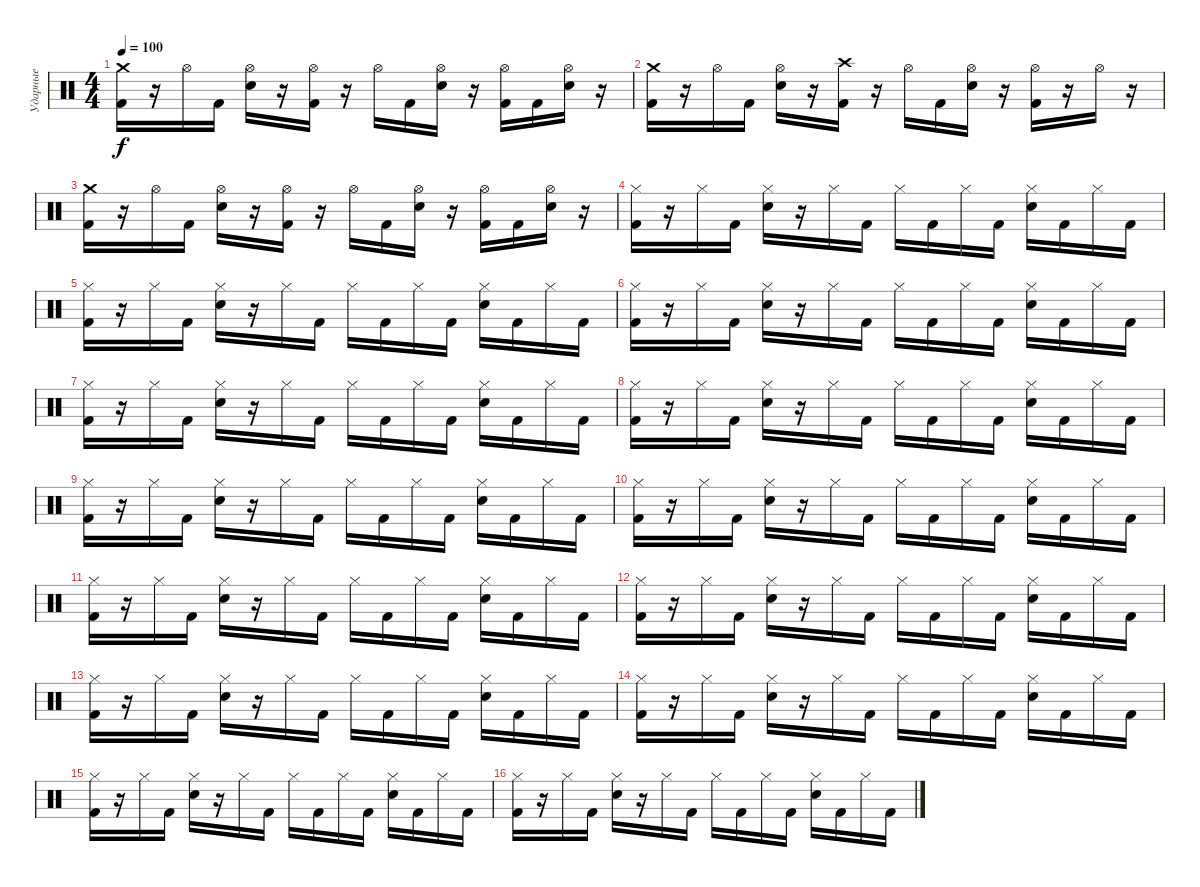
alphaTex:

\track ("Ударные" "Ударные") {instrument percussion}
\staff {score}
\articulation defaults
\ts (4 4)
\tempo 100
\clef neutral
\ks c
("Crash medium (hit)" "Kick (hit) 2").16{dy f} r.16 "Hi-Hat (open)".16 "Kick (hit) 2".16 ("Hi-Hat (open)" "Snare (hit) 2").16 r.16 ("Hi-Hat (open)" "Kick (hit) 2").16 r.16 "Hi-Hat (open)".16 "Kick (hit) 2".16 ("Hi-Hat (open)" "Snare (hit) 2").16 r.16 ("Hi-Hat (open)" "Kick (hit) 2").16 "Kick (hit) 2".16 ("Hi-Hat (open)" "Snare (hit) 2").16 r.16 |
("Crash medium (hit)" "Kick (hit) 2").16 r.16 "Hi-Hat (open)".16 "Kick (hit) 2".16 ("Hi-Hat (open)" "Snare (hit) 2").16 r.16 ("Crash high (hit)" "Kick (hit) 2").16 r.16 "Hi-Hat (open)".16 "Kick (hit) 2".16 ("Hi-Hat (open)" "Snare (hit) 2").16 r.16 ("Hi-Hat (open)" "Kick (hit) 2").16 r.16 "Hi-Hat (open)".16 r.16 |
("Crash medium (hit)" "Kick (hit) 2").16 r.16 "Hi-Hat (open)".16 "Kick (hit) 2".16 ("Hi-Hat (open)" "Snare (hit) 2").16 r.16 ("Hi-Hat (open)" "Kick (hit) 2").16 r.16 "Hi-Hat (open)".16 "Kick (hit) 2".16 ("Hi-Hat (open)" "Snare (hit) 2").16 r.16 ("Hi-Hat (open)" "Kick (hit) 2").16 "Kick (hit) 2".16 ("Hi-Hat (open)" "Snare (hit) 2").16 r.16 |
("Hi-Hat (closed)" "Kick (hit) 2").16 r.16 "Hi-Hat (closed)".16 "Kick (hit) 2".16 ("Hi-Hat (closed)" "Snare (hit) 2").16 r.16 "Hi-Hat (closed)".16 "Kick (hit) 2".16 "Hi-Hat (closed)".16 "Kick (hit) 2".16 "Hi-Hat (closed)".16 "Kick (hit) 2".16 ("Hi-Hat (closed)" "Snare (hit) 2").16 "Kick (hit) 2".16 "Hi-Hat (closed)".16 "Kick (hit) 2".16 |
("Hi-Hat (closed)" "Kick (hit) 2").16 r.16 "Hi-Hat (closed)".16 "Kick (hit) 2".16 ("Hi-Hat (closed)" "Snare (hit) 2").16 r.16 "Hi-Hat (closed)".16 "Kick (hit) 2".16 "Hi-Hat (closed)".16 "Kick (hit) 2".16 "Hi-Hat (closed)".16 "Kick (hit) 2".16 ("Hi-Hat (closed)" "Snare (hit) 2").16 "Kick (hit) 2".16 "Hi-Hat (closed)".16 "Kick (hit) 2".16 |
("Hi-Hat (closed)" "Kick (hit) 2").16 r.16 "Hi-Hat (closed)".16 "Kick (hit) 2".16 ("Hi-Hat (closed)" "Snare (hit) 2").16 r.16 "Hi-Hat (closed)".16 "Kick (hit) 2".16 "Hi-Hat (closed)".16 "Kick (hit) 2".16 "Hi-Hat (closed)".16 "Kick (hit) 2".16 ("Hi-Hat (closed)" "Snare (hit) 2").16 "Kick (hit) 2".16 "Hi-Hat (closed)".16 "Kick (hit) 2".16 |
("Hi-Hat (closed)" "Kick (hit) 2").16 r.16 "Hi-Hat (closed)".16 "Kick (hit) 2".16 ("Hi-Hat (closed)" "Snare (hit) 2").16 r.16 "Hi-Hat (closed)".16 "Kick (hit) 2".16 "Hi-Hat (closed)".16 "Kick (hit) 2".16 "Hi-Hat (closed)".16 "Kick (hit) 2".16 ("Hi-Hat (closed)" "Snare (hit) 2").16 "Kick (hit) 2".16 "Hi-Hat (closed)".16 "Kick (hit) 2".16 |
("Hi-Hat (closed)" "Kick (hit) 2").16 r.16 "Hi-Hat (closed)".16 "Kick (hit) 2".16 ("Hi-Hat (closed)" "Snare (hit) 2").16 r.16 "Hi-Hat (closed)".16 "Kick (hit) 2".16 "Hi-Hat (closed)".16 "Kick (hit) 2".16 "Hi-Hat (closed)".16 "Kick (hit) 2".16 ("Hi-Hat (closed)" "Snare (hit) 2").16 "Kick (hit) 2".16 "Hi-Hat (closed)".16 "Kick (hit) 2".16 |
("Hi-Hat (closed)" "Kick (hit) 2").16 r.16 "Hi-Hat (closed)".16 "Kick (hit) 2".16 ("Hi-Hat (closed)" "Snare (hit) 2").16 r.16 "Hi-Hat (closed)".16 "Kick (hit) 2".16 "Hi-Hat (closed)".16 "Kick (hit) 2".16 "Hi-Hat (closed)".16 "Kick (hit) 2".16 ("Hi-Hat (closed)" "Snare (hit) 2").16 "Kick (hit) 2".16 "Hi-Hat (closed)".16 "Kick (hit) 2".16 |
("Hi-Hat (closed)" "Kick (hit) 2").16 r.16 "Hi-Hat (closed)".16 "Kick (hit) 2".16 ("Hi-Hat (closed)" "Snare (hit) 2").16 r.16 "Hi-Hat (closed)".16 "Kick (hit) 2".16 "Hi-Hat (closed)".16 "Kick (hit) 2".16 "Hi-Hat (closed)".16 "Kick (hit) 2".16 ("Hi-Hat (closed)" "Snare (hit) 2").16 "Kick (hit) 2".16 "Hi-Hat (closed)".16 "Kick (hit) 2".16 |
("Hi-Hat (closed)" "Kick (hit) 2").16 r.16 "Hi-Hat (closed)".16 "Kick (hit) 2".16 ("Hi-Hat (closed)" "Snare (hit) 2").16 r.16 "Hi-Hat (closed)".16 "Kick (hit) 2".16 "Hi-Hat (closed)".16 "Kick (hit) 2".16 "Hi-Hat (closed)".16 "Kick (hit) 2".16 ("Hi-Hat (closed)" "Snare (hit) 2").16 "Kick (hit) 2".16 "Hi-Hat (closed)".16 "Kick (hit) 2".16 |
("Hi-Hat (closed)" "Kick (hit) 2").16 r.16 "Hi-Hat (closed)".16 "Kick (hit) 2".16 ("Hi-Hat (closed)" "Snare (hit) 2").16 r.16 "Hi-Hat (closed)".16 "Kick (hit) 2".16 "Hi-Hat (closed)".16 "Kick (hit) 2".16 "Hi-Hat (closed)".16 "Kick (hit) 2".16 ("Hi-Hat (closed)" "Snare (hit) 2").16 "Kick (hit) 2".16 "Hi-Hat (closed)".16 "Kick (hit) 2".16 |
("Hi-Hat (closed)" "Kick (hit) 2").16 r.16 "Hi-Hat (closed)".16 "Kick (hit) 2".16 ("Hi-Hat (closed)" "Snare (hit) 2").16 r.16 "Hi-Hat (closed)".16 "Kick (hit) 2".16 "Hi-Hat (closed)".16 "Kick (hit) 2".16 "Hi-Hat (closed)".16 "Kick (hit) 2".16 ("Hi-Hat (closed)" "Snare (hit) 2").16 "Kick (hit) 2".16 "Hi-Hat (closed)".16 "Kick (hit) 2".16 |
("Hi-Hat (closed)" "Kick (hit) 2").16 r.16 "Hi-Hat (closed)".16 "Kick (hit) 2".16 ("Hi-Hat (closed)" "Snare (hit) 2").16 r.16 "Hi-Hat (closed)".16 "Kick (hit) 2".16 "Hi-Hat (closed)".16 "Kick (hit) 2".16 "Hi-Hat (closed)".16 "Kick (hit) 2".16 ("Hi-Hat (closed)" "Snare (hit) 2").16 "Kick (hit) 2".16 "Hi-Hat (closed)".16 "Kick (hit) 2".16 |
("Hi-Hat (closed)" "Kick (hit) 2").16 r.16 "Hi-Hat (closed)".16 "Kick (hit) 2".16 ("Hi-Hat (closed)" "Snare (hit) 2").16 r.16 "Hi-Hat (closed)".16 "Kick (hit) 2".16 "Hi-Hat (closed)".16 "Kick (hit) 2".16 "Hi-Hat (closed)".16 "Kick (hit) 2".16 ("Hi-Hat (closed)" "Snare (hit) 2").16 "Kick (hit) 2".16 "Hi-Hat (closed)".16 "Kick (hit) 2".16 |
("Hi-Hat (closed)" "Kick (hit) 2").16 r.16 "Hi-Hat (closed)".16 "Kick (hit) 2".16 ("Hi-Hat (closed)" "Snare (hit) 2").16 r.16 "Hi-Hat (closed)".16 "Kick (hit) 2".16 "Hi-Hat (closed)".16 "Kick (hit) 2".16 "Hi-Hat (closed)".16 "Kick (hit) 2".16 ("Hi-Hat (closed)" "Snare (hit) 2").16 "Kick (hit) 2".16 "Hi-Hat (closed)".16 "Kick (hit) 2".16
